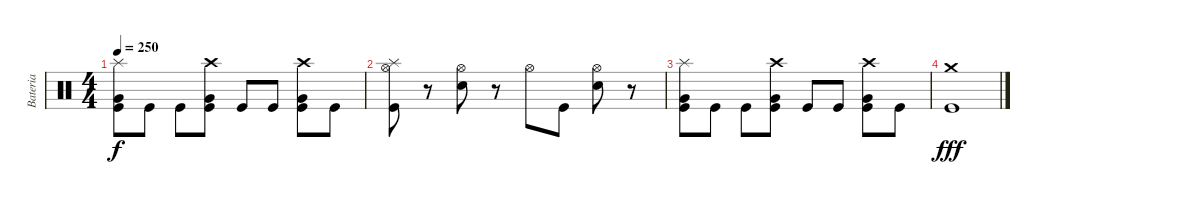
\track ("Bateria" "Bateria") {instrument percussion}
\staff {score}
\articulation defaults
\ts (4 4)
\tempo 250
\clef neutral
\ks c
("Kick (hit)" "Very Low Tom (hit)" "Splash (hit)").8{dy f} "Kick (hit)".8 "Kick (hit)".8 ("Kick (hit)" "Very Low Tom (hit)" "Crash high (hit)").8 "Kick (hit)".8 "Kick (hit)".8 ("Kick (hit)" "Very Low Tom (hit)" "Crash high (hit)").8 "Kick (hit)".8 |
("Kick (hit)" "Hi-Hat (open)" "Splash (hit)").8 r.8 ("Electric Snare (hit)" "Hi-Hat (open)").8 r.8 "Hi-Hat (open)".8 "Kick (hit)".8 ("Electric Snare (hit)" "Hi-Hat (open)").8 r.8 |
("Kick (hit)" "Very Low Tom (hit)" "Splash (hit)").8 "Kick (hit)".8 "Kick (hit)".8 ("Kick (hit)" "Very Low Tom (hit)" "Crash high (hit)").8 "Kick (hit)".8 "Kick (hit)".8 ("Kick (hit)" "Very Low Tom (hit)" "Crash high (hit)").8 "Kick (hit)".8 |
("Kick (hit)" "Crash medium (hit)").1{dy fff}
